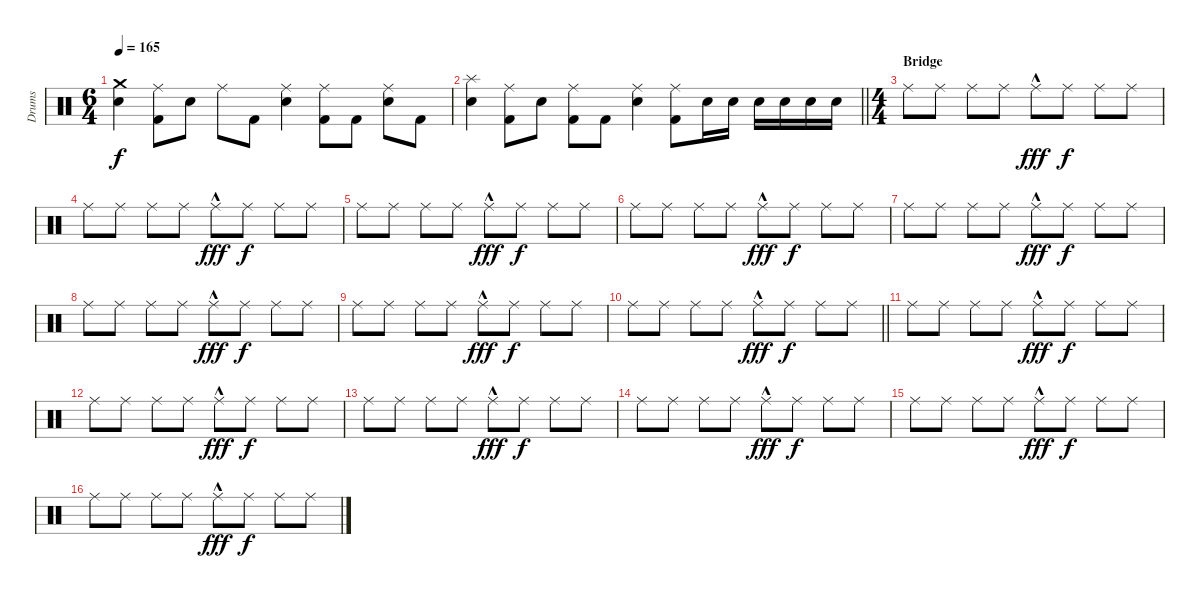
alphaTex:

\track ("Drums" "Drums") {instrument percussion}
\staff {score}
\articulation defaults
\ts (6 4)
\tempo 165
\clef neutral
\ks c
("Snare (hit) 2" "Crash medium (hit)").4{dy f} ("Kick (hit) 2" "Ride (middle)").8 "Snare (hit) 2".8 "Ride (middle)".8 "Kick (hit) 2".8 ("Snare (hit) 2" "Ride (middle)").4 ("Kick (hit) 2" "Ride (middle)").8 "Kick (hit) 2".8 ("Snare (hit) 2" "Ride (middle)").8 "Kick (hit) 2".8 |
\barLineRight lightlight
("Snare (hit) 2" "Splash (hit)").4 ("Kick (hit) 2" "Ride (middle)").8 "Snare (hit) 2".8 ("Kick (hit) 2" "Ride (middle)").8 "Kick (hit) 2".8 ("Snare (hit) 2" "Ride (middle)").4 ("Kick (hit) 2" "Ride (middle)").8 "Snare (hit) 2".16 "Snare (hit) 2".16 "Snare (hit) 2".16 "Snare (hit) 2".16 "Snare (hit) 2".16 "Snare (hit) 2".16 |
\ts (4 4)
\section ("" "Bridge")
"Ride (middle)".8{volume 9} "Ride (middle)".8 "Ride (middle)".8 "Ride (middle)".8 "Ride (middle)"{hac}.8{dy fff} "Ride (middle)".8{dy f} "Ride (middle)".8 "Ride (middle)".8 |
"Ride (middle)".8 "Ride (middle)".8 "Ride (middle)".8 "Ride (middle)".8 "Ride (middle)"{hac}.8{dy fff} "Ride (middle)".8{dy f} "Ride (middle)".8 "Ride (middle)".8 |
"Ride (middle)".8 "Ride (middle)".8 "Ride (middle)".8 "Ride (middle)".8 "Ride (middle)"{hac}.8{dy fff} "Ride (middle)".8{dy f} "Ride (middle)".8 "Ride (middle)".8 |
"Ride (middle)".8 "Ride (middle)".8 "Ride (middle)".8 "Ride (middle)".8 "Ride (middle)"{hac}.8{dy fff} "Ride (middle)".8{dy f} "Ride (middle)".8 "Ride (middle)".8 |
"Ride (middle)".8 "Ride (middle)".8 "Ride (middle)".8 "Ride (middle)".8 "Ride (middle)"{hac}.8{dy fff} "Ride (middle)".8{dy f} "Ride (middle)".8 "Ride (middle)".8 |
"Ride (middle)".8 "Ride (middle)".8 "Ride (middle)".8 "Ride (middle)".8 "Ride (middle)"{hac}.8{dy fff} "Ride (middle)".8{dy f} "Ride (middle)".8 "Ride (middle)".8 |
"Ride (middle)".8 "Ride (middle)".8 "Ride (middle)".8 "Ride (middle)".8 "Ride (middle)"{hac}.8{dy fff} "Ride (middle)".8{dy f} "Ride (middle)".8 "Ride (middle)".8 |
\barLineRight lightlight "Ride (middle)".8 "Ride (middle)".8 "Ride (middle)".8 "Ride (middle)".8 "Ride (middle)"{hac}.8{dy fff} "Ride (middle)".8{dy f} "Ride (middle)".8 "Ride (middle)".8
|
\section ("" "")
"Ride (middle)".8{volume 9} "Ride (middle)".8 "Ride (middle)".8 "Ride (middle)".8 "Ride (middle)"{hac}.8{dy fff} "Ride (middle)".8{dy f} "Ride (middle)".8 "Ride (middle)".8 |
"Ride (middle)".8 "Ride (middle)".8 "Ride (middle)".8 "Ride (middle)".8 "Ride (middle)"{hac}.8{dy fff} "Ride (middle)".8{dy f} "Ride (middle)".8 "Ride (middle)".8 |
"Ride (middle)".8 "Ride (middle)".8 "Ride (middle)".8 "Ride (middle)".8 "Ride (middle)"{hac}.8{dy fff} "Ride (middle)".8{dy f} "Ride (middle)".8 "Ride (middle)".8 |
"Ride (middle)".8 "Ride (middle)".8 "Ride (middle)".8 "Ride (middle)".8 "Ride (middle)"{hac}.8{dy fff} "Ride (middle)".8{dy f} "Ride (middle)".8 "Ride (middle)".8 |
"Ride (middle)".8 "Ride (middle)".8 "Ride (middle)".8 "Ride (middle)".8 "Ride (middle)"{hac}.8{dy fff} "Ride (middle)".8{dy f} "Ride (middle)".8 "Ride (middle)".8 |
"Ride (middle)".8 "Ride (middle)".8 "Ride (middle)".8 "Ride (middle)".8 "Ride (middle)"{hac}.8{dy fff} "Ride (middle)".8{dy f} "Ride (middle)".8 "Ride (middle)".8
